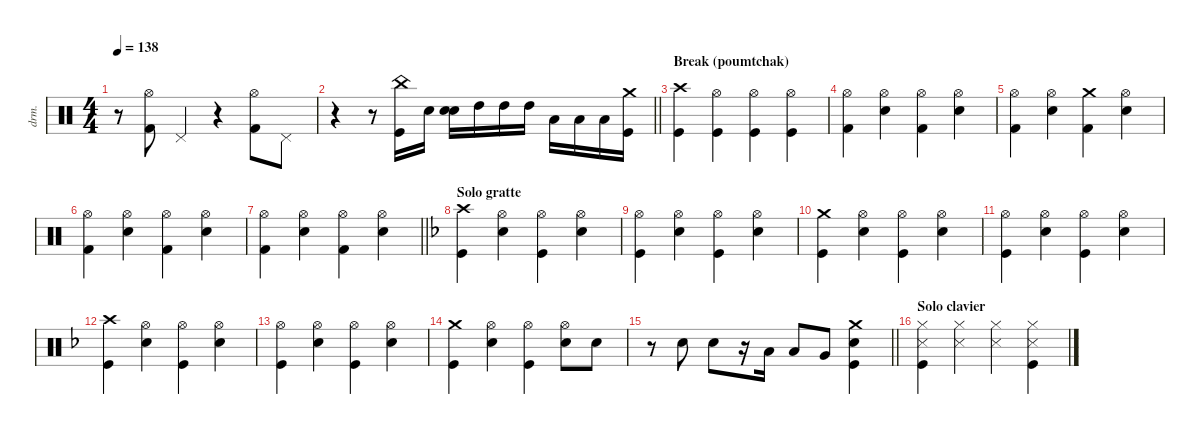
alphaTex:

\defaultSystemsLayout 4
\hideDynamics
\bracketExtendMode nobrackets
\track ("Percussions" "drm.") {instrument percussion}
\staff {score}
\articulation defaults
\ts (4 4)
\tempo 138
\clef neutral
\ks aminor
r.8{dy f beam Down} ("Kick (hit) 2" "Hi-Hat (open)").8{beam Down} "Pedal Hi-Hat (hit)".4{beam Up} r.4{beam Up} ("Kick (hit) 2" "Hi-Hat (open)").8{beam Down} "Pedal Hi-Hat (hit)".8{beam Down} |
\barLineRight lightlight
r.4{beam Down} r.8{beam Down} ("China (hit)" "Kick (hit)").16{beam Down} "Snare (hit) 2".16{beam Down} ("Snare (hit) 2" "Snare (hit) 2").16{beam Down} "High Tom (hit)".16{beam Down} "High Tom (hit)".16{beam Down} "High Tom (hit)".16{beam Down} "Low Tom (hit)".16{beam Down} "Low Tom (hit)".16{beam Down} "Low Tom (hit)".16{beam Down} ("Kick (hit)" "Crash medium (hit)").16{beam Down} |
\section ("" "Break (poumtchak)")
("Crash high (hit)" "Kick (hit)").4{beam Down} ("Hi-Hat (open)" "Kick (hit)").4{beam Down} ("Hi-Hat (open)" "Kick (hit)").4{beam Down} ("Hi-Hat (open)" "Kick (hit)").4{beam Down} |
("Hi-Hat (open)" "Kick (hit) 2").4{beam Down} ("Hi-Hat (open)" "Snare (hit) 2").4{beam Down} ("Hi-Hat (open)" "Kick (hit) 2").4{beam Down} ("Hi-Hat (open)" "Snare (hit) 2").4{beam Down} |
("Hi-Hat (open)" "Kick (hit) 2").4{beam Down} ("Hi-Hat (open)" "Snare (hit) 2").4{beam Down} ("Crash medium (hit)" "Kick (hit) 2").4{beam Down} ("Hi-Hat (open)" "Snare (hit) 2").4{beam Down} |
("Hi-Hat (open)" "Kick (hit) 2").4{beam Down} ("Hi-Hat (open)" "Snare (hit) 2").4{beam Down} ("Hi-Hat (open)" "Kick (hit) 2").4{beam Down} ("Hi-Hat (open)" "Snare (hit) 2").4{beam Down} |
\barLineRight lightlight
("Hi-Hat (open)" "Kick (hit) 2").4{beam Down} ("Hi-Hat (open)" "Snare (hit) 2").4{beam Down} ("Hi-Hat (open)" "Kick (hit) 2").4{beam Down} ("Hi-Hat (open)" "Snare (hit) 2").4{beam Down} |
\section ("" "Solo gratte")
\ks dminor
("Crash high (hit)"{acc forcenatural} "Kick (hit)"{acc forcenatural}).4{beam Down} ("Hi-Hat (open)"{acc forcenatural} "Snare (hit) 2"{acc forcenatural}).4{beam Down} ("Hi-Hat (open)"{acc forcenatural} "Kick (hit)"{acc forcenatural}).4{beam Down} ("Hi-Hat (open)"{acc forcenatural} "Snare (hit) 2"{acc forcenatural}).4{beam Down} |
("Hi-Hat (open)"{acc forcenatural} "Kick (hit)"{acc forcenatural}).4{beam Down} ("Hi-Hat (open)"{acc forcenatural} "Snare (hit) 2"{acc forcenatural}).4{beam Down} ("Hi-Hat (open)"{acc forcenatural} "Kick (hit)"{acc forcenatural}).4{beam Down} ("Hi-Hat (open)"{acc forcenatural} "Snare (hit) 2"{acc forcenatural}).4{beam Down} |
("Crash medium (hit)"{acc forcenatural} "Kick (hit)"{acc forcenatural}).4{beam Down} ("Hi-Hat (open)"{acc forcenatural} "Snare (hit) 2"{acc forcenatural}).4{beam Down} ("Hi-Hat (open)"{acc forcenatural} "Kick (hit)"{acc forcenatural}).4{beam Down} ("Hi-Hat (open)"{acc forcenatural} "Snare (hit) 2"{acc forcenatural}).4{beam Down} |
("Hi-Hat (open)"{acc forcenatural} "Kick (hit)"{acc forcenatural}).4{beam Down} ("Hi-Hat (open)"{acc forcenatural} "Snare (hit) 2"{acc forcenatural}).4{beam Down} ("Hi-Hat (open)"{acc forcenatural} "Kick (hit)"{acc forcenatural}).4{beam Down} ("Hi-Hat (open)"{acc forcenatural} "Snare (hit) 2"{acc forcenatural}).4{beam Down} |
("Crash high (hit)"{acc forcenatural} "Kick (hit)"{acc forcenatural}).4{beam Down} ("Hi-Hat (open)"{acc forcenatural} "Snare (hit) 2"{acc forcenatural}).4{beam Down} ("Hi-Hat (open)"{acc forcenatural} "Kick (hit)"{acc forcenatural}).4{beam Down} ("Hi-Hat (open)"{acc forcenatural} "Snare (hit) 2"{acc forcenatural}).4{beam Down} |
("Hi-Hat (open)"{acc forcenatural} "Kick (hit)"{acc forcenatural}).4{beam Down} ("Hi-Hat (open)"{acc forcenatural} "Snare (hit) 2"{acc forcenatural}).4{beam Down} ("Hi-Hat (open)"{acc forcenatural} "Kick (hit)"{acc forcenatural}).4{beam Down} ("Hi-Hat (open)"{acc forcenatural} "Snare (hit) 2"{acc forcenatural}).4{beam Down} |
("Crash medium (hit)"{acc forcenatural} "Kick (hit)"{acc forcenatural}).4{beam Down} ("Hi-Hat (open)"{acc forcenatural} "Snare (hit) 2"{acc forcenatural}).4{beam Down} ("Hi-Hat (open)"{acc forcenatural} "Kick (hit)"{acc forcenatural}).4{beam Down} ("Hi-Hat (open)"{acc forcenatural} "Snare (hit) 2"{acc forcenatural}).8{beam Down} "Snare (hit) 2"{acc forcenatural}.8{beam Down} |
\barLineRight lightlight
r.8{beam Down} "Snare (hit) 2"{acc forcenatural}.8{beam Down} "Snare (hit) 2"{acc forcenatural}.8{beam Down} r.16{beam Down} "Low Tom (hit)"{acc forcenatural}.16{beam Down} "Low Tom (hit)"{acc forcenatural}.8{beam Up} "Very Low Tom (hit)"{acc forcenatural}.8{beam Up} ("Crash medium (hit)"{acc forcenatural} "Snare (hit) 2"{acc forcenatural} "Kick (hit)"{acc forcenatural}).4{beam Down} |
\section ("" "Solo clavier")
("Hi-Hat (closed)"{acc forcenatural} "Snare (side stick) 3"{acc forcenatural} "Kick (hit)"{acc forcenatural}).4{beam Down} ("Hi-Hat (closed)"{acc forcenatural} "Snare (side stick) 3"{acc forcenatural}).4{beam Down} ("Hi-Hat (closed)"{acc forcenatural} "Snare (side stick) 3"{acc forcenatural}).4{beam Down} ("Hi-Hat (closed)"{acc forcenatural} "Snare (side stick) 3"{acc forcenatural} "Kick (hit)"{acc forcenatural}).4{beam Down}
